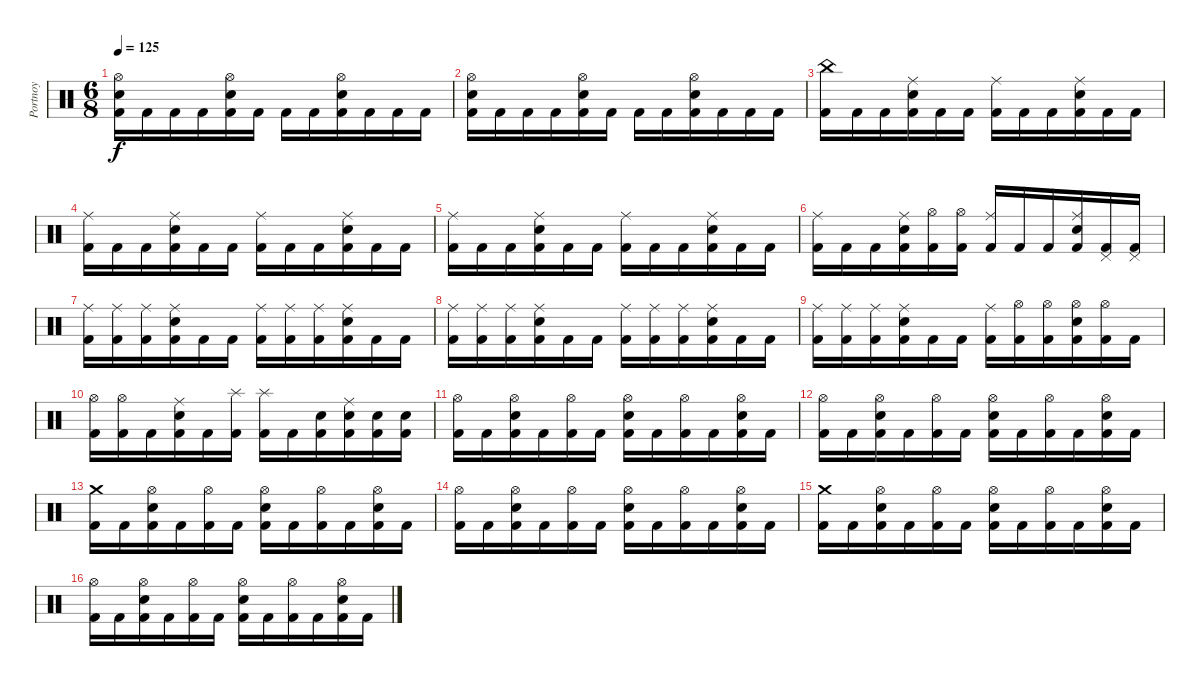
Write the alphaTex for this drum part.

\track ("Portnoy" "Portnoy") {instrument percussion}
\staff {score}
\articulation defaults
\ts (6 8)
\tempo 125
\clef neutral
\ks c
("Hi-Hat (open)" "Snare (hit) 2" "Kick (hit) 2").16{dy f} "Kick (hit) 2".16 "Kick (hit) 2".16 "Kick (hit) 2".16 ("Hi-Hat (open)" "Snare (hit) 2" "Kick (hit) 2").16 "Kick (hit) 2".16 "Kick (hit) 2".16 "Kick (hit) 2".16 ("Hi-Hat (open)" "Snare (hit) 2" "Kick (hit) 2").16 "Kick (hit) 2".16 "Kick (hit) 2".16 "Kick (hit) 2".16 |
("Hi-Hat (open)" "Snare (hit) 2" "Kick (hit) 2").16 "Kick (hit) 2".16 "Kick (hit) 2".16 "Kick (hit) 2".16 ("Hi-Hat (open)" "Snare (hit) 2" "Kick (hit) 2").16 "Kick (hit) 2".16 "Kick (hit) 2".16 "Kick (hit) 2".16 ("Hi-Hat (open)" "Snare (hit) 2" "Kick (hit) 2").16 "Kick (hit) 2".16 "Kick (hit) 2".16 "Kick (hit) 2".16 |
("China (hit)" "Kick (hit) 2").16 "Kick (hit) 2".16 "Kick (hit) 2".16 ("Ride (middle)" "Snare (hit) 2" "Kick (hit) 2").16 "Kick (hit) 2".16 "Kick (hit) 2".16 ("Ride (middle)" "Kick (hit) 2").16 "Kick (hit) 2".16 "Kick (hit) 2".16 ("Ride (middle)" "Snare (hit) 2" "Kick (hit) 2").16 "Kick (hit) 2".16 "Kick (hit) 2".16 |
("Ride (middle)" "Kick (hit) 2").16 "Kick (hit) 2".16 "Kick (hit) 2".16 ("Ride (middle)" "Snare (hit) 2" "Kick (hit) 2").16 "Kick (hit) 2".16 "Kick (hit) 2".16 ("Ride (middle)" "Kick (hit) 2").16 "Kick (hit) 2".16 "Kick (hit) 2".16 ("Ride (middle)" "Snare (hit) 2" "Kick (hit) 2").16 "Kick (hit) 2".16 "Kick (hit) 2".16 |
("Ride (middle)" "Kick (hit) 2").16 "Kick (hit) 2".16 "Kick (hit) 2".16 ("Ride (middle)" "Snare (hit) 2" "Kick (hit) 2").16 "Kick (hit) 2".16 "Kick (hit) 2".16 ("Ride (middle)" "Kick (hit) 2").16 "Kick (hit) 2".16 "Kick (hit) 2".16 ("Ride (middle)" "Snare (hit) 2" "Kick (hit) 2").16 "Kick (hit) 2".16 "Kick (hit) 2".16 |
("Ride (middle)" "Kick (hit) 2").16 "Kick (hit) 2".16 "Kick (hit) 2".16 ("Ride (middle)" "Snare (hit) 2" "Kick (hit) 2").16 ("Hi-Hat (open)" "Kick (hit) 2").16 ("Hi-Hat (open)" "Kick (hit) 2").16 ("Ride (middle)" "Kick (hit) 2").16 "Kick (hit) 2".16 "Kick (hit) 2".16 ("Ride (middle)" "Snare (hit) 2" "Kick (hit) 2").16 ("Pedal Hi-Hat (hit)" "Kick (hit) 2").16 ("Pedal Hi-Hat (hit)" "Kick (hit) 2").16 |
("Ride (middle)" "Kick (hit) 2").16 ("Ride (middle)" "Kick (hit) 2").16 ("Ride (middle)" "Kick (hit) 2").16 ("Ride (middle)" "Snare (hit) 2" "Kick (hit) 2").16 "Kick (hit) 2".16 "Kick (hit) 2".16 ("Ride (middle)" "Kick (hit) 2").16 ("Ride (middle)" "Kick (hit) 2").16 ("Ride (middle)" "Kick (hit) 2").16 ("Ride (middle)" "Snare (hit) 2" "Kick (hit) 2").16 "Kick (hit) 2".16 "Kick (hit) 2".16 |
("Ride (middle)" "Kick (hit) 2").16 ("Ride (middle)" "Kick (hit) 2").16 ("Ride (middle)" "Kick (hit) 2").16 ("Ride (middle)" "Snare (hit) 2" "Kick (hit) 2").16 "Kick (hit) 2".16 "Kick (hit) 2".16 ("Ride (middle)" "Kick (hit) 2").16 ("Ride (middle)" "Kick (hit) 2").16 ("Ride (middle)" "Kick (hit) 2").16 ("Ride (middle)" "Snare (hit) 2" "Kick (hit) 2").16 "Kick (hit) 2".16 "Kick (hit) 2".16 |
("Ride (middle)" "Kick (hit) 2").16 ("Ride (middle)" "Kick (hit) 2").16 ("Ride (middle)" "Kick (hit) 2").16 ("Ride (middle)" "Snare (hit) 2" "Kick (hit) 2").16 "Kick (hit) 2".16 "Kick (hit) 2".16 ("Ride (middle)" "Kick (hit) 2").16 ("Hi-Hat (open)" "Kick (hit) 2").16 ("Hi-Hat (open)" "Kick (hit) 2").16 ("Hi-Hat (open)" "Snare (hit) 2" "Kick (hit) 2").16 ("Hi-Hat (open)" "Kick (hit) 2").16 "Kick (hit) 2".16 |
("Hi-Hat (open)" "Kick (hit) 2").16 ("Hi-Hat (open)" "Kick (hit) 2").16 "Kick (hit) 2".16 ("Ride (middle)" "Snare (hit) 2" "Kick (hit) 2").16 "Kick (hit) 2".16 ("Splash (hit)" "Kick (hit) 2").16 ("Splash (hit)" "Kick (hit) 2").16 "Kick (hit) 2".16 ("Snare (hit) 2" "Kick (hit) 2").16 ("Ride (middle)" "Snare (hit) 2" "Kick (hit) 2").16 ("Snare (hit) 2" "Kick (hit) 2").16 ("Snare (hit) 2" "Kick (hit) 2").16 |
("Hi-Hat (open)" "Kick (hit) 2").16 "Kick (hit) 2".16 ("Hi-Hat (open)" "Snare (hit) 2" "Kick (hit) 2").16 "Kick (hit) 2".16 ("Hi-Hat (open)" "Kick (hit) 2").16 "Kick (hit) 2".16 ("Hi-Hat (open)" "Snare (hit) 2" "Kick (hit) 2").16 "Kick (hit) 2".16 ("Hi-Hat (open)" "Kick (hit) 2").16 "Kick (hit) 2".16 ("Hi-Hat (open)" "Snare (hit) 2" "Kick (hit) 2").16 "Kick (hit) 2".16 |
("Hi-Hat (open)" "Kick (hit) 2").16 "Kick (hit) 2".16 ("Hi-Hat (open)" "Snare (hit) 2" "Kick (hit) 2").16 "Kick (hit) 2".16 ("Hi-Hat (open)" "Kick (hit) 2").16 "Kick (hit) 2".16 ("Hi-Hat (open)" "Snare (hit) 2" "Kick (hit) 2").16 "Kick (hit) 2".16 ("Hi-Hat (open)" "Kick (hit) 2").16 "Kick (hit) 2".16 ("Hi-Hat (open)" "Snare (hit) 2" "Kick (hit) 2").16 "Kick (hit) 2".16 |
("Crash medium (hit)" "Kick (hit) 2").16 "Kick (hit) 2".16 ("Hi-Hat (open)" "Snare (hit) 2" "Kick (hit) 2").16 "Kick (hit) 2".16 ("Hi-Hat (open)" "Kick (hit) 2").16 "Kick (hit) 2".16 ("Hi-Hat (open)" "Snare (hit) 2" "Kick (hit) 2").16 "Kick (hit) 2".16 ("Hi-Hat (open)" "Kick (hit) 2").16 "Kick (hit) 2".16 ("Hi-Hat (open)" "Snare (hit) 2" "Kick (hit) 2").16 "Kick (hit) 2".16 |
("Hi-Hat (open)" "Kick (hit) 2").16 "Kick (hit) 2".16 ("Hi-Hat (open)" "Snare (hit) 2" "Kick (hit) 2").16 "Kick (hit) 2".16 ("Hi-Hat (open)" "Kick (hit) 2").16 "Kick (hit) 2".16 ("Hi-Hat (open)" "Snare (hit) 2" "Kick (hit) 2").16 "Kick (hit) 2".16 ("Hi-Hat (open)" "Kick (hit) 2").16 "Kick (hit) 2".16 ("Hi-Hat (open)" "Snare (hit) 2" "Kick (hit) 2").16 "Kick (hit) 2".16 |
("Crash medium (hit)" "Kick (hit) 2").16 "Kick (hit) 2".16 ("Hi-Hat (open)" "Snare (hit) 2" "Kick (hit) 2").16 "Kick (hit) 2".16 ("Hi-Hat (open)" "Kick (hit) 2").16 "Kick (hit) 2".16 ("Hi-Hat (open)" "Snare (hit) 2" "Kick (hit) 2").16 "Kick (hit) 2".16 ("Hi-Hat (open)" "Kick (hit) 2").16 "Kick (hit) 2".16 ("Hi-Hat (open)" "Snare (hit) 2" "Kick (hit) 2").16 "Kick (hit) 2".16 |
("Hi-Hat (open)" "Kick (hit) 2").16 "Kick (hit) 2".16 ("Hi-Hat (open)" "Snare (hit) 2" "Kick (hit) 2").16 "Kick (hit) 2".16 ("Hi-Hat (open)" "Kick (hit) 2").16 "Kick (hit) 2".16 ("Hi-Hat (open)" "Snare (hit) 2" "Kick (hit) 2").16 "Kick (hit) 2".16 ("Hi-Hat (open)" "Kick (hit) 2").16 "Kick (hit) 2".16 ("Hi-Hat (open)" "Snare (hit) 2" "Kick (hit) 2").16 "Kick (hit) 2".16
